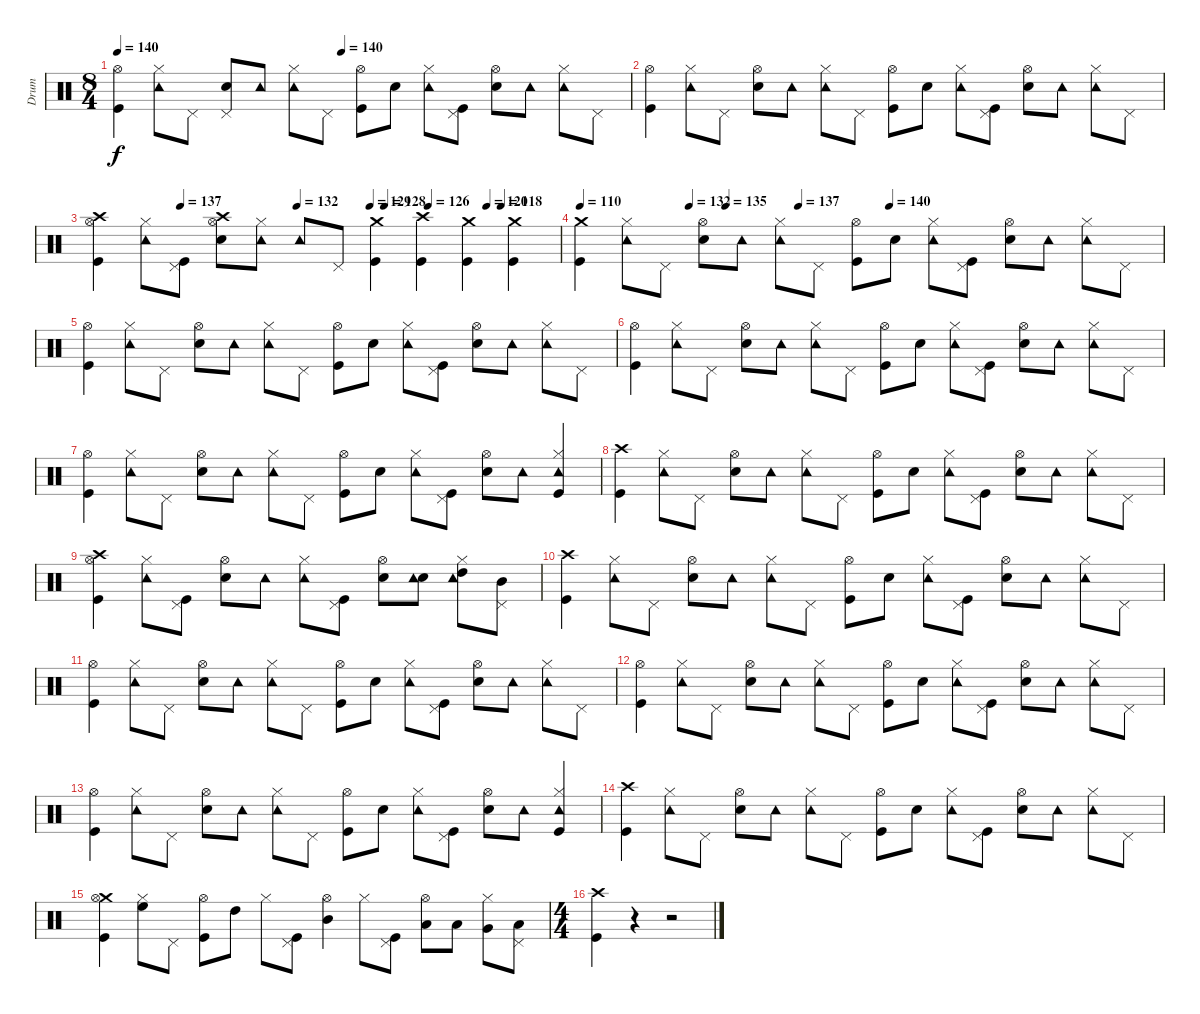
\track ("Drum" "Drum") {instrument percussion}
\staff {score}
\articulation defaults
\ts (8 4)
\tempo 140
\tempo (140 0.4375)
\clef neutral
\ks c
("Kick (hit)" "Hi-Hat (open)").4{dy f} ("Hi-Hat (closed)" "Tambourine (hit)").8 "Pedal Hi-Hat (hit)".8 ("Snare (hit) 2" "Pedal Hi-Hat (hit)").8 "Tambourine (hit)".8 ("Hi-Hat (closed)" "Tambourine (hit)").8 "Pedal Hi-Hat (hit)".8 ("Kick (hit)" "Hi-Hat (open)").8 "Snare (hit) 2".8 ("Hi-Hat (closed)" "Tambourine (hit)").8 ("Kick (hit)" "Pedal Hi-Hat (hit)").8 ("Snare (hit) 2" "Hi-Hat (open)").8 "Tambourine (hit)".8 ("Hi-Hat (closed)" "Tambourine (hit)").8 "Pedal Hi-Hat (hit)".8 |
("Kick (hit)" "Hi-Hat (open)").4 ("Hi-Hat (closed)" "Tambourine (hit)").8 "Pedal Hi-Hat (hit)".8 ("Snare (hit) 2" "Hi-Hat (open)").8 "Tambourine (hit)".8 ("Hi-Hat (closed)" "Tambourine (hit)").8 "Pedal Hi-Hat (hit)".8 ("Kick (hit)" "Hi-Hat (open)").8 "Snare (hit) 2".8 ("Hi-Hat (closed)" "Tambourine (hit)").8 ("Kick (hit)" "Pedal Hi-Hat (hit)").8 ("Snare (hit) 2" "Hi-Hat (open)").8 "Tambourine (hit)".8 ("Hi-Hat (closed)" "Tambourine (hit)").8 "Pedal Hi-Hat (hit)".8 |
\tempo (137 0.1875)
\tempo (132 0.4375)
\tempo (129 0.59375)
\tempo (128 0.625)
\tempo (126 0.71875)
\tempo (120 0.84375)
\tempo (118 0.875)
("Kick (hit)" "Hi-Hat (open)" "Crash high (hit)").4 ("Hi-Hat (closed)" "Tambourine (hit)").8 ("Kick (hit)" "Pedal Hi-Hat (hit)").8 ("Hi-Hat (open)" "Snare (hit) 2" "Crash high (hit)").8 ("Tambourine (hit)" "Hi-Hat (closed)").8 "Tambourine (hit)".8 "Pedal Hi-Hat (hit)".8 ("Kick (hit)" "Crash medium (hit)").4 ("Kick (hit)" "Crash high (hit)").4 ("Kick (hit)" "Crash medium (hit)").4 ("Kick (hit)" "Crash medium (hit)").4 |
\tempo 110
\tempo (132 0.1875)
\tempo (135 0.25)
\tempo (137 0.375)
\tempo (140 0.53125)
("Kick (hit)" "Crash medium (hit)").4 ("Hi-Hat (closed)" "Tambourine (hit)").8 "Pedal Hi-Hat (hit)".8 ("Snare (hit) 2" "Hi-Hat (open)").8 "Tambourine (hit)".8 ("Hi-Hat (closed)" "Tambourine (hit)").8 "Pedal Hi-Hat (hit)".8 ("Kick (hit)" "Hi-Hat (open)").8 "Snare (hit) 2".8 ("Hi-Hat (closed)" "Tambourine (hit)").8 ("Kick (hit)" "Pedal Hi-Hat (hit)").8 ("Snare (hit) 2" "Hi-Hat (open)").8 "Tambourine (hit)".8 ("Hi-Hat (closed)" "Tambourine (hit)").8 "Pedal Hi-Hat (hit)".8 |
("Kick (hit)" "Hi-Hat (open)").4 ("Hi-Hat (closed)" "Tambourine (hit)").8 "Pedal Hi-Hat (hit)".8 ("Snare (hit) 2" "Hi-Hat (open)").8 "Tambourine (hit)".8 ("Hi-Hat (closed)" "Tambourine (hit)").8 "Pedal Hi-Hat (hit)".8 ("Kick (hit)" "Hi-Hat (open)").8 "Snare (hit) 2".8 ("Hi-Hat (closed)" "Tambourine (hit)").8 ("Kick (hit)" "Pedal Hi-Hat (hit)").8 ("Snare (hit) 2" "Hi-Hat (open)").8 "Tambourine (hit)".8 ("Hi-Hat (closed)" "Tambourine (hit)").8 "Pedal Hi-Hat (hit)".8 |
("Kick (hit)" "Hi-Hat (open)").4 ("Hi-Hat (closed)" "Tambourine (hit)").8 "Pedal Hi-Hat (hit)".8 ("Snare (hit) 2" "Hi-Hat (open)").8 "Tambourine (hit)".8 ("Hi-Hat (closed)" "Tambourine (hit)").8 "Pedal Hi-Hat (hit)".8 ("Kick (hit)" "Hi-Hat (open)").8 "Snare (hit) 2".8 ("Hi-Hat (closed)" "Tambourine (hit)").8 ("Kick (hit)" "Pedal Hi-Hat (hit)").8 ("Snare (hit) 2" "Hi-Hat (open)").8 "Tambourine (hit)".8 ("Hi-Hat (closed)" "Tambourine (hit)").8 "Pedal Hi-Hat (hit)".8 |
("Kick (hit)" "Hi-Hat (open)").4 ("Hi-Hat (closed)" "Tambourine (hit)").8 "Pedal Hi-Hat (hit)".8 ("Snare (hit) 2" "Hi-Hat (open)").8 "Tambourine (hit)".8 ("Hi-Hat (closed)" "Tambourine (hit)").8 "Pedal Hi-Hat (hit)".8 ("Kick (hit)" "Hi-Hat (open)").8 "Snare (hit) 2".8 ("Hi-Hat (closed)" "Tambourine (hit)").8 ("Kick (hit)" "Pedal Hi-Hat (hit)").8 ("Snare (hit) 2" "Hi-Hat (open)").8 "Tambourine (hit)".8 ("Hi-Hat (closed)" "Tambourine (hit)" "Kick (hit)").4 |
("Kick (hit)" "Crash high (hit)").4 ("Hi-Hat (closed)" "Tambourine (hit)").8 "Pedal Hi-Hat (hit)".8 ("Snare (hit) 2" "Hi-Hat (open)").8 "Tambourine (hit)".8 ("Hi-Hat (closed)" "Tambourine (hit)").8 "Pedal Hi-Hat (hit)".8 ("Kick (hit)" "Hi-Hat (open)").8 "Snare (hit) 2".8 ("Hi-Hat (closed)" "Tambourine (hit)").8 ("Kick (hit)" "Pedal Hi-Hat (hit)").8 ("Snare (hit) 2" "Hi-Hat (open)").8 "Tambourine (hit)".8 ("Hi-Hat (closed)" "Tambourine (hit)").8 "Pedal Hi-Hat (hit)".8 |
("Kick (hit)" "Crash high (hit)" "Hi-Hat (open)").4 ("Hi-Hat (closed)" "Tambourine (hit)").8 ("Pedal Hi-Hat (hit)" "Kick (hit)").8 ("Snare (hit) 2" "Hi-Hat (open)").8 "Tambourine (hit)".8 ("Hi-Hat (closed)" "Tambourine (hit)").8 ("Pedal Hi-Hat (hit)" "Kick (hit)").8 ("Snare (hit) 2" "Hi-Hat (open)").8 ("Snare (hit) 2" "Tambourine (hit)").8 ("High Tom (hit)" "Hi-Hat (closed)" "Tambourine (hit)").8 ("Mid Tom (hit)" "Pedal Hi-Hat (hit)").8 |
("Kick (hit)" "Crash high (hit)").4 ("Hi-Hat (closed)" "Tambourine (hit)").8 "Pedal Hi-Hat (hit)".8 ("Snare (hit) 2" "Hi-Hat (open)").8 "Tambourine (hit)".8 ("Hi-Hat (closed)" "Tambourine (hit)").8 "Pedal Hi-Hat (hit)".8 ("Kick (hit)" "Hi-Hat (open)").8 "Snare (hit) 2".8 ("Hi-Hat (closed)" "Tambourine (hit)").8 ("Kick (hit)" "Pedal Hi-Hat (hit)").8 ("Snare (hit) 2" "Hi-Hat (open)").8 "Tambourine (hit)".8 ("Hi-Hat (closed)" "Tambourine (hit)").8 "Pedal Hi-Hat (hit)".8 |
("Kick (hit)" "Hi-Hat (open)").4 ("Hi-Hat (closed)" "Tambourine (hit)").8 "Pedal Hi-Hat (hit)".8 ("Snare (hit) 2" "Hi-Hat (open)").8 "Tambourine (hit)".8 ("Hi-Hat (closed)" "Tambourine (hit)").8 "Pedal Hi-Hat (hit)".8 ("Kick (hit)" "Hi-Hat (open)").8 "Snare (hit) 2".8 ("Hi-Hat (closed)" "Tambourine (hit)").8 ("Kick (hit)" "Pedal Hi-Hat (hit)").8 ("Snare (hit) 2" "Hi-Hat (open)").8 "Tambourine (hit)".8 ("Hi-Hat (closed)" "Tambourine (hit)").8 "Pedal Hi-Hat (hit)".8 |
("Kick (hit)" "Hi-Hat (open)").4 ("Hi-Hat (closed)" "Tambourine (hit)").8 "Pedal Hi-Hat (hit)".8 ("Snare (hit) 2" "Hi-Hat (open)").8 "Tambourine (hit)".8 ("Hi-Hat (closed)" "Tambourine (hit)").8 "Pedal Hi-Hat (hit)".8 ("Kick (hit)" "Hi-Hat (open)").8 "Snare (hit) 2".8 ("Hi-Hat (closed)" "Tambourine (hit)").8 ("Kick (hit)" "Pedal Hi-Hat (hit)").8 ("Snare (hit) 2" "Hi-Hat (open)").8 "Tambourine (hit)".8 ("Hi-Hat (closed)" "Tambourine (hit)").8 "Pedal Hi-Hat (hit)".8 |
("Kick (hit)" "Hi-Hat (open)").4 ("Hi-Hat (closed)" "Tambourine (hit)").8 "Pedal Hi-Hat (hit)".8 ("Snare (hit) 2" "Hi-Hat (open)").8 "Tambourine (hit)".8 ("Hi-Hat (closed)" "Tambourine (hit)").8 "Pedal Hi-Hat (hit)".8 ("Kick (hit)" "Hi-Hat (open)").8 "Snare (hit) 2".8 ("Hi-Hat (closed)" "Tambourine (hit)").8 ("Kick (hit)" "Pedal Hi-Hat (hit)").8 ("Snare (hit) 2" "Hi-Hat (open)").8 "Tambourine (hit)".8 ("Hi-Hat (closed)" "Tambourine (hit)" "Kick (hit)").4 |
("Kick (hit)" "Crash high (hit)").4 ("Hi-Hat (closed)" "Tambourine (hit)").8 "Pedal Hi-Hat (hit)".8 ("Snare (hit) 2" "Hi-Hat (open)").8 "Tambourine (hit)".8 ("Hi-Hat (closed)" "Tambourine (hit)").8 "Pedal Hi-Hat (hit)".8 ("Kick (hit)" "Hi-Hat (open)").8 "Snare (hit) 2".8 ("Hi-Hat (closed)" "Tambourine (hit)").8 ("Kick (hit)" "Pedal Hi-Hat (hit)").8 ("Snare (hit) 2" "Hi-Hat (open)").8 "Tambourine (hit)".8 ("Hi-Hat (closed)" "Tambourine (hit)").8 "Pedal Hi-Hat (hit)".8 |
("Crash medium (hit)" "Hi-Hat (open)" "Kick (hit)").4 ("High Floor Tom (hit)" "Hi-Hat (closed)").8 "Pedal Hi-Hat (hit)".8 ("Kick (hit)" "Hi-Hat (open)").8 "High Tom (hit)".8 "Hi-Hat (closed)".8 ("Pedal Hi-Hat (hit)" "Kick (hit)").8 ("Mid Tom (hit)" "Hi-Hat (open)").4 "Hi-Hat (closed)".8 ("Pedal Hi-Hat (hit)" "Kick (hit)").8 ("Low Tom (hit)" "Hi-Hat (open)").8 "Low Tom (hit)".8 ("Very Low Tom (hit)" "Hi-Hat (closed)").8 ("Low Floor Tom (hit)" "Pedal Hi-Hat (hit)").8 |
\ts (4 4)
("Kick (hit)" "Crash high (hit)").4 r.4 r.2
